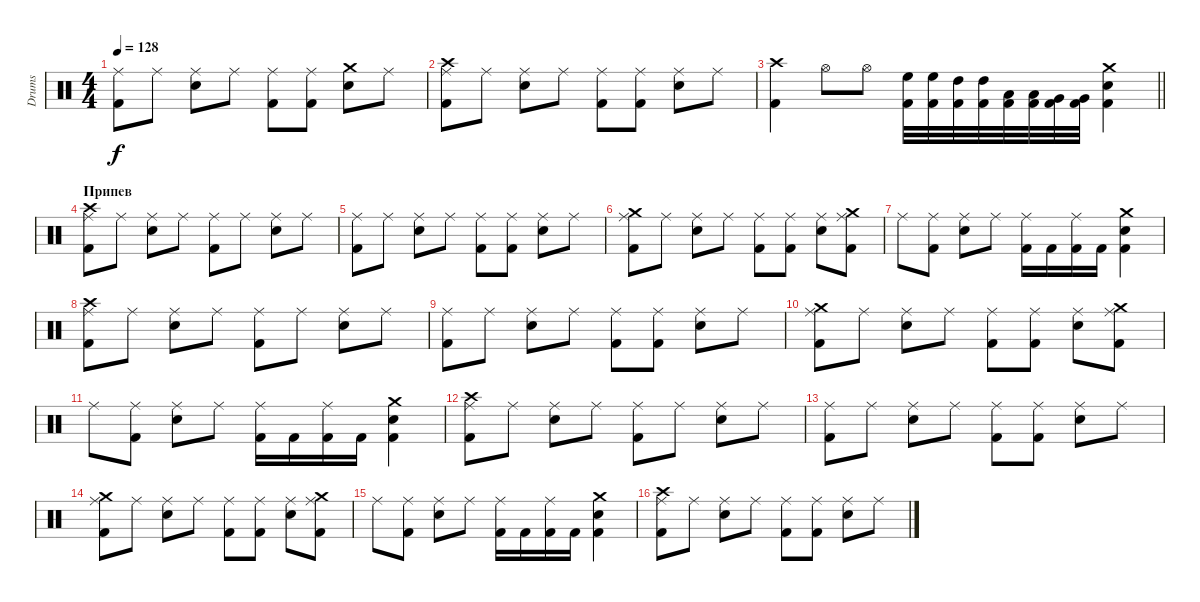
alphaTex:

\track ("Drums" "Drums") {instrument percussion}
\staff {score}
\articulation defaults
\ts (4 4)
\tempo 128
\clef neutral
\ks c
("Kick (hit) 2" "Ride (middle)").8{dy f} "Ride (middle)".8 ("Electric Snare (hit)" "Ride (middle)").8 "Ride (middle)".8 ("Kick (hit) 2" "Ride (middle)").8 ("Kick (hit) 2" "Ride (middle)").8 ("Electric Snare (hit)" "Crash medium (hit)").8 "Ride (middle)".8 |
("Kick (hit) 2" "Ride (middle)" "Crash high (hit)").8 "Ride (middle)".8 ("Electric Snare (hit)" "Ride (middle)").8 "Ride (middle)".8 ("Kick (hit) 2" "Ride (middle)").8 ("Kick (hit) 2" "Ride (middle)").8 ("Electric Snare (hit)" "Ride (middle)").8 "Ride (middle)".8 |
\barLineRight lightlight
("Kick (hit) 2" "Crash high (hit)").4 "Hi-Hat (open)".8 "Hi-Hat (open)".8 ("Kick (hit) 2" "High Floor Tom (hit)").32 ("Kick (hit) 2" "High Floor Tom (hit)").32 ("Kick (hit) 2" "High Tom (hit)").32 ("Kick (hit) 2" "High Tom (hit)").32 ("Kick (hit) 2" "Low Tom (hit)").32 ("Kick (hit) 2" "Low Tom (hit)").32 ("Kick (hit) 2" "Very Low Tom (hit)").32 ("Kick (hit) 2" "Very Low Tom (hit)").32 ("Kick (hit) 2" "Electric Snare (hit)" "Crash medium (hit)").4 |
\section ("" "Припев")
("Kick (hit) 2" "Ride (middle)" "Crash high (hit)").8 "Ride (middle)".8 ("Electric Snare (hit)" "Ride (middle)").8 "Ride (middle)".8 ("Kick (hit) 2" "Ride (middle)").8 "Ride (middle)".8 ("Electric Snare (hit)" "Ride (middle)").8 "Ride (middle)".8 |
("Kick (hit) 2" "Ride (middle)").8 "Ride (middle)".8 ("Electric Snare (hit)" "Ride (middle)").8 "Ride (middle)".8 ("Kick (hit) 2" "Ride (middle)").8 ("Kick (hit) 2" "Ride (middle)").8 ("Electric Snare (hit)" "Ride (middle)").8 "Ride (middle)".8 |
("Kick (hit) 2" "Ride (middle)" "Crash medium (hit)").8 "Ride (middle)".8 ("Electric Snare (hit)" "Ride (middle)").8 "Ride (middle)".8 ("Kick (hit) 2" "Ride (middle)").8 ("Kick (hit) 2" "Ride (middle)").8 ("Electric Snare (hit)" "Ride (middle)").8 ("Kick (hit) 2" "Ride (middle)" "Crash medium (hit)").8 |
"Ride (middle)".8 ("Kick (hit) 2" "Ride (middle)").8 ("Electric Snare (hit)" "Ride (middle)").8 "Ride (middle)".8 ("Kick (hit) 2" "Ride (middle)").16 "Kick (hit) 2".16 ("Kick (hit) 2" "Ride (middle)").16 "Kick (hit) 2".16 ("Kick (hit) 2" "Electric Snare (hit)" "Crash medium (hit)").4 |
("Kick (hit) 2" "Ride (middle)" "Crash high (hit)").8 "Ride (middle)".8 ("Electric Snare (hit)" "Ride (middle)").8 "Ride (middle)".8 ("Kick (hit) 2" "Ride (middle)").8 "Ride (middle)".8 ("Electric Snare (hit)" "Ride (middle)").8 "Ride (middle)".8 |
("Kick (hit) 2" "Ride (middle)").8 "Ride (middle)".8 ("Electric Snare (hit)" "Ride (middle)").8 "Ride (middle)".8 ("Kick (hit) 2" "Ride (middle)").8 ("Kick (hit) 2" "Ride (middle)").8 ("Electric Snare (hit)" "Ride (middle)").8 "Ride (middle)".8 |
("Kick (hit) 2" "Ride (middle)" "Crash medium (hit)").8 "Ride (middle)".8 ("Electric Snare (hit)" "Ride (middle)").8 "Ride (middle)".8 ("Kick (hit) 2" "Ride (middle)").8 ("Kick (hit) 2" "Ride (middle)").8 ("Electric Snare (hit)" "Ride (middle)").8 ("Kick (hit) 2" "Ride (middle)" "Crash medium (hit)").8 |
"Ride (middle)".8 ("Kick (hit) 2" "Ride (middle)").8 ("Electric Snare (hit)" "Ride (middle)").8 "Ride (middle)".8 ("Kick (hit) 2" "Ride (middle)").16 "Kick (hit) 2".16 ("Kick (hit) 2" "Ride (middle)").16 "Kick (hit) 2".16 ("Kick (hit) 2" "Electric Snare (hit)" "Crash medium (hit)").4 |
("Kick (hit) 2" "Ride (middle)" "Crash high (hit)").8 "Ride (middle)".8 ("Electric Snare (hit)" "Ride (middle)").8 "Ride (middle)".8 ("Kick (hit) 2" "Ride (middle)").8 "Ride (middle)".8 ("Electric Snare (hit)" "Ride (middle)").8 "Ride (middle)".8 |
("Kick (hit) 2" "Ride (middle)").8 "Ride (middle)".8 ("Electric Snare (hit)" "Ride (middle)").8 "Ride (middle)".8 ("Kick (hit) 2" "Ride (middle)").8 ("Kick (hit) 2" "Ride (middle)").8 ("Electric Snare (hit)" "Ride (middle)").8 "Ride (middle)".8 |
("Kick (hit) 2" "Ride (middle)" "Crash medium (hit)").8 "Ride (middle)".8 ("Electric Snare (hit)" "Ride (middle)").8 "Ride (middle)".8 ("Kick (hit) 2" "Ride (middle)").8 ("Kick (hit) 2" "Ride (middle)").8 ("Electric Snare (hit)" "Ride (middle)").8 ("Kick (hit) 2" "Ride (middle)" "Crash medium (hit)").8 |
"Ride (middle)".8 ("Kick (hit) 2" "Ride (middle)").8 ("Electric Snare (hit)" "Ride (middle)").8 "Ride (middle)".8 ("Kick (hit) 2" "Ride (middle)").16 "Kick (hit) 2".16 ("Kick (hit) 2" "Ride (middle)").16 "Kick (hit) 2".16 ("Kick (hit) 2" "Electric Snare (hit)" "Crash medium (hit)").4 |
("Kick (hit) 2" "Ride (middle)" "Crash high (hit)").8 "Ride (middle)".8 ("Electric Snare (hit)" "Ride (middle)").8 "Ride (middle)".8 ("Kick (hit) 2" "Ride (middle)").8 ("Kick (hit) 2" "Ride (middle)").8 ("Electric Snare (hit)" "Ride (middle)").8 "Ride (middle)".8
